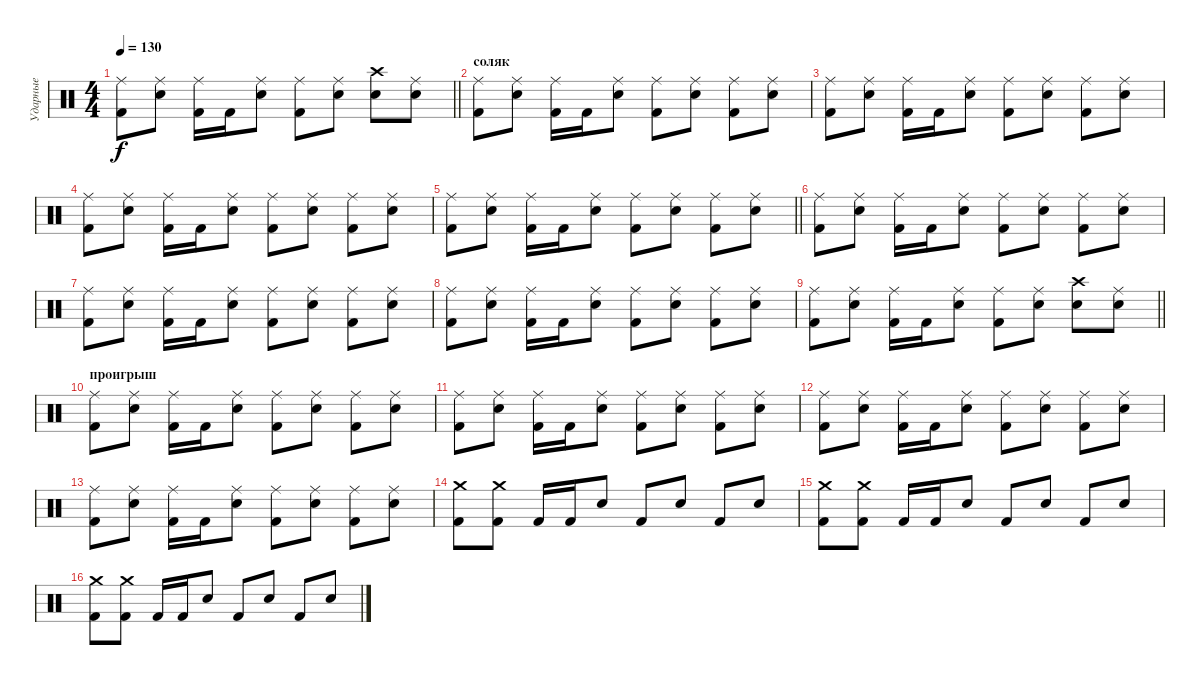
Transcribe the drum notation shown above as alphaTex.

\track ("Ударные" "Ударные") {instrument percussion}
\staff {score}
\articulation defaults
\ts (4 4)
\tempo 130
\clef neutral
\barLineRight lightlight
\ks c
("Kick (hit) 2" "Ride (middle)").8{dy f} ("Electric Snare (hit)" "Ride (middle)").8 ("Kick (hit) 2" "Ride (middle)").16 "Kick (hit) 2".16 ("Electric Snare (hit)" "Ride (middle)").8 ("Kick (hit) 2" "Ride (middle)").8 ("Electric Snare (hit)" "Ride (middle)").8 ("Electric Snare (hit)" "Crash high (hit)").8 ("Electric Snare (hit)" "Ride (middle)").8 |
\section ("" "соляк")
("Kick (hit) 2" "Ride (middle)").8 ("Electric Snare (hit)" "Ride (middle)").8 ("Kick (hit) 2" "Ride (middle)").16 "Kick (hit) 2".16 ("Electric Snare (hit)" "Ride (middle)").8 ("Kick (hit) 2" "Ride (middle)").8 ("Electric Snare (hit)" "Ride (middle)").8 ("Kick (hit) 2" "Ride (middle)").8 ("Electric Snare (hit)" "Ride (middle)").8 |
("Kick (hit) 2" "Ride (middle)").8 ("Electric Snare (hit)" "Ride (middle)").8 ("Kick (hit) 2" "Ride (middle)").16 "Kick (hit) 2".16 ("Electric Snare (hit)" "Ride (middle)").8 ("Kick (hit) 2" "Ride (middle)").8 ("Electric Snare (hit)" "Ride (middle)").8 ("Kick (hit) 2" "Ride (middle)").8 ("Electric Snare (hit)" "Ride (middle)").8 |
("Kick (hit) 2" "Ride (middle)").8 ("Electric Snare (hit)" "Ride (middle)").8 ("Kick (hit) 2" "Ride (middle)").16 "Kick (hit) 2".16 ("Electric Snare (hit)" "Ride (middle)").8 ("Kick (hit) 2" "Ride (middle)").8 ("Electric Snare (hit)" "Ride (middle)").8 ("Kick (hit) 2" "Ride (middle)").8 ("Electric Snare (hit)" "Ride (middle)").8 |
\barLineRight lightlight
("Kick (hit) 2" "Ride (middle)").8 ("Electric Snare (hit)" "Ride (middle)").8 ("Kick (hit) 2" "Ride (middle)").16 "Kick (hit) 2".16 ("Electric Snare (hit)" "Ride (middle)").8 ("Kick (hit) 2" "Ride (middle)").8 ("Electric Snare (hit)" "Ride (middle)").8 ("Kick (hit) 2" "Ride (middle)").8 ("Electric Snare (hit)" "Ride (middle)").8 |
("Kick (hit) 2" "Ride (middle)").8 ("Electric Snare (hit)" "Ride (middle)").8 ("Kick (hit) 2" "Ride (middle)").16 "Kick (hit) 2".16 ("Electric Snare (hit)" "Ride (middle)").8 ("Kick (hit) 2" "Ride (middle)").8 ("Electric Snare (hit)" "Ride (middle)").8 ("Kick (hit) 2" "Ride (middle)").8 ("Electric Snare (hit)" "Ride (middle)").8 |
("Kick (hit) 2" "Ride (middle)").8 ("Electric Snare (hit)" "Ride (middle)").8 ("Kick (hit) 2" "Ride (middle)").16 "Kick (hit) 2".16 ("Electric Snare (hit)" "Ride (middle)").8 ("Kick (hit) 2" "Ride (middle)").8 ("Electric Snare (hit)" "Ride (middle)").8 ("Kick (hit) 2" "Ride (middle)").8 ("Electric Snare (hit)" "Ride (middle)").8 |
("Kick (hit) 2" "Ride (middle)").8 ("Electric Snare (hit)" "Ride (middle)").8 ("Kick (hit) 2" "Ride (middle)").16 "Kick (hit) 2".16 ("Electric Snare (hit)" "Ride (middle)").8 ("Kick (hit) 2" "Ride (middle)").8 ("Electric Snare (hit)" "Ride (middle)").8 ("Kick (hit) 2" "Ride (middle)").8 ("Electric Snare (hit)" "Ride (middle)").8 |
\barLineRight lightlight
("Kick (hit) 2" "Ride (middle)").8 ("Electric Snare (hit)" "Ride (middle)").8 ("Kick (hit) 2" "Ride (middle)").16 "Kick (hit) 2".16 ("Electric Snare (hit)" "Ride (middle)").8 ("Kick (hit) 2" "Ride (middle)").8 ("Electric Snare (hit)" "Ride (middle)").8 ("Electric Snare (hit)" "Crash high (hit)").8 ("Electric Snare (hit)" "Ride (middle)").8 |
\section ("" "проигрыш")
("Kick (hit) 2" "Ride (middle)").8 ("Electric Snare (hit)" "Ride (middle)").8 ("Kick (hit) 2" "Ride (middle)").16 "Kick (hit) 2".16 ("Electric Snare (hit)" "Ride (middle)").8 ("Kick (hit) 2" "Ride (middle)").8 ("Electric Snare (hit)" "Ride (middle)").8 ("Kick (hit) 2" "Ride (middle)").8 ("Electric Snare (hit)" "Ride (middle)").8 |
("Kick (hit) 2" "Ride (middle)").8 ("Electric Snare (hit)" "Ride (middle)").8 ("Kick (hit) 2" "Ride (middle)").16 "Kick (hit) 2".16 ("Electric Snare (hit)" "Ride (middle)").8 ("Kick (hit) 2" "Ride (middle)").8 ("Electric Snare (hit)" "Ride (middle)").8 ("Kick (hit) 2" "Ride (middle)").8 ("Electric Snare (hit)" "Ride (middle)").8 |
("Kick (hit) 2" "Ride (middle)").8 ("Electric Snare (hit)" "Ride (middle)").8 ("Kick (hit) 2" "Ride (middle)").16 "Kick (hit) 2".16 ("Electric Snare (hit)" "Ride (middle)").8 ("Kick (hit) 2" "Ride (middle)").8 ("Electric Snare (hit)" "Ride (middle)").8 ("Kick (hit) 2" "Ride (middle)").8 ("Electric Snare (hit)" "Ride (middle)").8 |
("Kick (hit) 2" "Ride (middle)").8 ("Electric Snare (hit)" "Ride (middle)").8 ("Kick (hit) 2" "Ride (middle)").16 "Kick (hit) 2".16 ("Electric Snare (hit)" "Ride (middle)").8 ("Kick (hit) 2" "Ride (middle)").8 ("Electric Snare (hit)" "Ride (middle)").8 ("Kick (hit) 2" "Ride (middle)").8 ("Electric Snare (hit)" "Ride (middle)").8 |
("Kick (hit) 2" "Crash medium (hit)").8 ("Kick (hit) 2" "Crash medium (hit)").8 "Kick (hit) 2".16 "Kick (hit) 2".16 "Electric Snare (hit)".8 "Kick (hit) 2".8 "Electric Snare (hit)".8 "Kick (hit) 2".8 "Electric Snare (hit)".8 |
("Kick (hit) 2" "Crash medium (hit)").8 ("Kick (hit) 2" "Crash medium (hit)").8 "Kick (hit) 2".16 "Kick (hit) 2".16 "Electric Snare (hit)".8 "Kick (hit) 2".8 "Electric Snare (hit)".8 "Kick (hit) 2".8 "Electric Snare (hit)".8 |
("Kick (hit) 2" "Crash medium (hit)").8 ("Kick (hit) 2" "Crash medium (hit)").8 "Kick (hit) 2".16 "Kick (hit) 2".16 "Electric Snare (hit)".8 "Kick (hit) 2".8 "Electric Snare (hit)".8 "Kick (hit) 2".8 "Electric Snare (hit)".8
